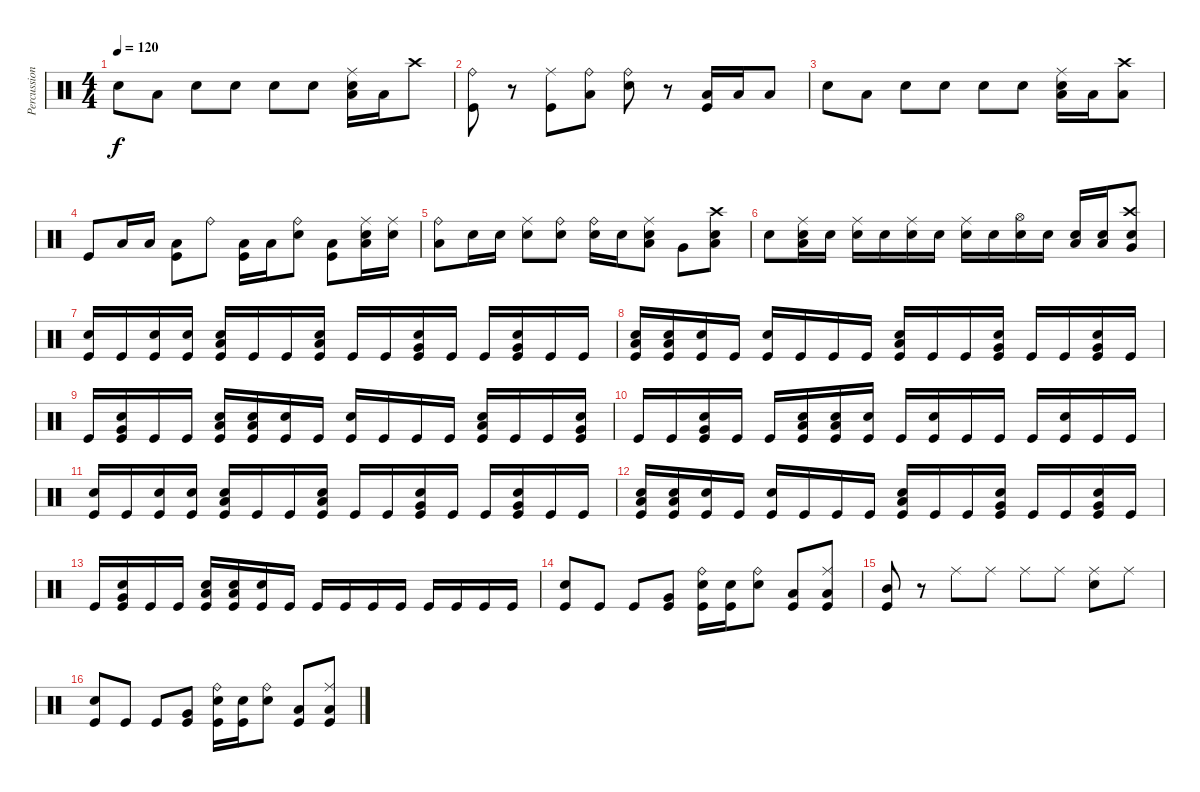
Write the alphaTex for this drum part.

\track ("Percussion" "Percussion") {instrument percussion}
\staff {score}
\articulation defaults
\ts (4 4)
\tempo 120
\clef neutral
\ks c "Electric Snare (hit)".8{dy f} "Low Tom (hit)".8 "Electric Snare (hit)".8 "Electric Snare (hit)".8 "Electric Snare (hit)".8 "Electric Snare (hit)".8
("Ride (middle)" "Low Tom (hit)" "Electric Snare (hit)").16 "Low Tom (hit)".16 "Crash high (hit)".8 |
("Ride (bell)" "Kick (hit)").8 r.8 ("Ride (middle)" "Kick (hit)").8 ("Ride (bell)" "Low Tom (hit)").8 ("Ride (bell)" "Electric Snare (hit)").8 r.8 ("Low Tom (hit)" "Kick (hit)").16 "Low Tom (hit)".16 "Low Tom (hit)".8 |
"Electric Snare (hit)".8 "Low Tom (hit)".8 "Electric Snare (hit)".8 "Electric Snare (hit)".8 "Electric Snare (hit)".8 "Electric Snare (hit)".8 ("Ride (middle)" "Low Tom (hit)" "Electric Snare (hit)").16 "Low Tom (hit)".16 ("Crash high (hit)" "Low Tom (hit)").8 |
"Kick (hit)".8 "Low Tom (hit)".16 "Low Tom (hit)".16 ("Low Tom (hit)" "Kick (hit)").8 "Ride (bell)".8 ("Low Tom (hit)" "Kick (hit)").16 "Low Tom (hit)".16 ("Ride (bell)" "Electric Snare (hit)").8 ("Low Tom (hit)" "Kick (hit)").8 ("Ride (middle)" "Low Tom (hit)" "Electric Snare (hit)").16 ("Ride (middle)" "Electric Snare (hit)").16 |
("Ride (bell)" "Low Tom (hit)").8 "Electric Snare (hit)".16 "Electric Snare (hit)".16 ("Ride (middle)" "Electric Snare (hit)").8 ("Ride (bell)" "Electric Snare (hit)").8 ("Ride (bell)" "Electric Snare (hit)").16 "Electric Snare (hit)".16 ("Ride (middle)" "Low Tom (hit)" "Electric Snare (hit)").8 "Very Low Tom (hit)".8 ("Crash high (hit)" "Low Tom (hit)" "Electric Snare (hit)").8 |
"Electric Snare (hit)".8 ("Ride (middle)" "Low Tom (hit)" "Electric Snare (hit)").16 "Electric Snare (hit)".16 ("Ride (middle)" "Electric Snare (hit)").16 "Electric Snare (hit)".16 ("Ride (middle)" "Electric Snare (hit)").16 "Electric Snare (hit)".16 ("Ride (middle)" "Electric Snare (hit)").16 "Electric Snare (hit)".16 ("Hi-Hat (open)" "Electric Snare (hit)").16 "Electric Snare (hit)".16 ("Low Tom (hit)" "Electric Snare (hit)").16 ("Low Tom (hit)" "Electric Snare (hit)").16 ("Crash high (hit)" "Very Low Tom (hit)" "Electric Snare (hit)").8 |
("Electric Snare (hit)" "Kick (hit)").16 "Kick (hit)".16 ("Electric Snare (hit)" "Kick (hit)").16 ("Electric Snare (hit)" "Kick (hit)").16 ("Low Tom (hit)" "Electric Snare (hit)" "Kick (hit)").16 "Kick (hit)".16 "Kick (hit)".16 ("Low Tom (hit)" "Electric Snare (hit)" "Kick (hit)").16 "Kick (hit)".16 "Kick (hit)".16 ("Very Low Tom (hit)" "Electric Snare (hit)" "Kick (hit)").16 "Kick (hit)".16 "Kick (hit)".16 ("Very Low Tom (hit)" "Electric Snare (hit)" "Kick (hit)").16 "Kick (hit)".16 "Kick (hit)".16 |
("Low Tom (hit)" "Electric Snare (hit)" "Kick (hit)").16 ("Low Tom (hit)" "Electric Snare (hit)" "Kick (hit)").16 ("Electric Snare (hit)" "Kick (hit)").16 "Kick (hit)".16 ("Electric Snare (hit)" "Kick (hit)").16 "Kick (hit)".16 "Kick (hit)".16 "Kick (hit)".16 ("Low Tom (hit)" "Electric Snare (hit)" "Kick (hit)").16 "Kick (hit)".16 "Kick (hit)".16 ("Very Low Tom (hit)" "Electric Snare (hit)" "Kick (hit)").16 "Kick (hit)".16 "Kick (hit)".16 ("Very Low Tom (hit)" "Electric Snare (hit)" "Kick (hit)").16 "Kick (hit)".16 |
"Kick (hit)".16 ("Very Low Tom (hit)" "Electric Snare (hit)" "Kick (hit)").16 "Kick (hit)".16 "Kick (hit)".16 ("Low Tom (hit)" "Electric Snare (hit)" "Kick (hit)").16 ("Low Tom (hit)" "Electric Snare (hit)" "Kick (hit)").16 ("Electric Snare (hit)" "Kick (hit)").16 "Kick (hit)".16 ("Electric Snare (hit)" "Kick (hit)").16 "Kick (hit)".16 "Kick (hit)".16 "Kick (hit)".16 ("Low Tom (hit)" "Electric Snare (hit)" "Kick (hit)").16 "Kick (hit)".16 "Kick (hit)".16 ("Very Low Tom (hit)" "Electric Snare (hit)" "Kick (hit)").16 |
"Kick (hit)".16 "Kick (hit)".16 ("Very Low Tom (hit)" "Electric Snare (hit)" "Kick (hit)").16 "Kick (hit)".16 "Kick (hit)".16 ("Low Tom (hit)" "Electric Snare (hit)" "Kick (hit)").16 ("Low Tom (hit)" "Electric Snare (hit)" "Kick (hit)").16 ("Electric Snare (hit)" "Kick (hit)").16 "Kick (hit)".16 ("Electric Snare (hit)" "Kick (hit)").16 "Kick (hit)".16 "Kick (hit)".16 "Kick (hit)".16 ("Electric Snare (hit)" "Kick (hit)").16 "Kick (hit)".16 "Kick (hit)".16 |
("Electric Snare (hit)" "Kick (hit)").16 "Kick (hit)".16 ("Electric Snare (hit)" "Kick (hit)").16 ("Electric Snare (hit)" "Kick (hit)").16 ("Low Tom (hit)" "Electric Snare (hit)" "Kick (hit)").16 "Kick (hit)".16 "Kick (hit)".16 ("Low Tom (hit)" "Electric Snare (hit)" "Kick (hit)").16 "Kick (hit)".16 "Kick (hit)".16 ("Very Low Tom (hit)" "Electric Snare (hit)" "Kick (hit)").16 "Kick (hit)".16 "Kick (hit)".16 ("Very Low Tom (hit)" "Electric Snare (hit)" "Kick (hit)").16 "Kick (hit)".16 "Kick (hit)".16 |
("Low Tom (hit)" "Electric Snare (hit)" "Kick (hit)").16 ("Low Tom (hit)" "Electric Snare (hit)" "Kick (hit)").16 ("Electric Snare (hit)" "Kick (hit)").16 "Kick (hit)".16 ("Electric Snare (hit)" "Kick (hit)").16 "Kick (hit)".16 "Kick (hit)".16 "Kick (hit)".16 ("Low Tom (hit)" "Electric Snare (hit)" "Kick (hit)").16 "Kick (hit)".16 "Kick (hit)".16 ("Very Low Tom (hit)" "Electric Snare (hit)" "Kick (hit)").16 "Kick (hit)".16 "Kick (hit)".16 ("Very Low Tom (hit)" "Electric Snare (hit)" "Kick (hit)").16 "Kick (hit)".16 |
"Kick (hit)".16 ("Very Low Tom (hit)" "Electric Snare (hit)" "Kick (hit)").16 "Kick (hit)".16 "Kick (hit)".16 ("Low Tom (hit)" "Electric Snare (hit)" "Kick (hit)").16 ("Low Tom (hit)" "Electric Snare (hit)" "Kick (hit)").16 ("Electric Snare (hit)" "Kick (hit)").16 "Kick (hit)".16 "Kick (hit)".16 "Kick (hit)".16 "Kick (hit)".16 "Kick (hit)".16 "Kick (hit)".16 "Kick (hit)".16 "Kick (hit)".16 "Kick (hit)".16 |
("Electric Snare (hit)" "Kick (hit)").8 "Kick (hit)".8 "Kick (hit)".8 ("Very Low Tom (hit)" "Kick (hit)").8 ("Ride (bell)" "Electric Snare (hit)" "Kick (hit)").16 ("Electric Snare (hit)" "Kick (hit)").16 ("Ride (bell)" "Electric Snare (hit)").8 ("Low Tom (hit)" "Kick (hit)").8 ("Ride (middle)" "Low Tom (hit)" "Kick (hit)").8 |
("Mid Tom (hit)" "Kick (hit)").8 r.8 "Ride (middle)".8 "Ride (middle)".8 "Ride (middle)".8 "Ride (middle)".8 ("Ride (middle)" "Electric Snare (hit)").8 "Ride (middle)".8 |
("Electric Snare (hit)" "Kick (hit)").8 "Kick (hit)".8 "Kick (hit)".8 ("Very Low Tom (hit)" "Kick (hit)").8 ("Ride (bell)" "Electric Snare (hit)" "Kick (hit)").16 ("Electric Snare (hit)" "Kick (hit)").16 ("Ride (bell)" "Electric Snare (hit)").8 ("Low Tom (hit)" "Kick (hit)").8 ("Ride (middle)" "Low Tom (hit)" "Kick (hit)").8
